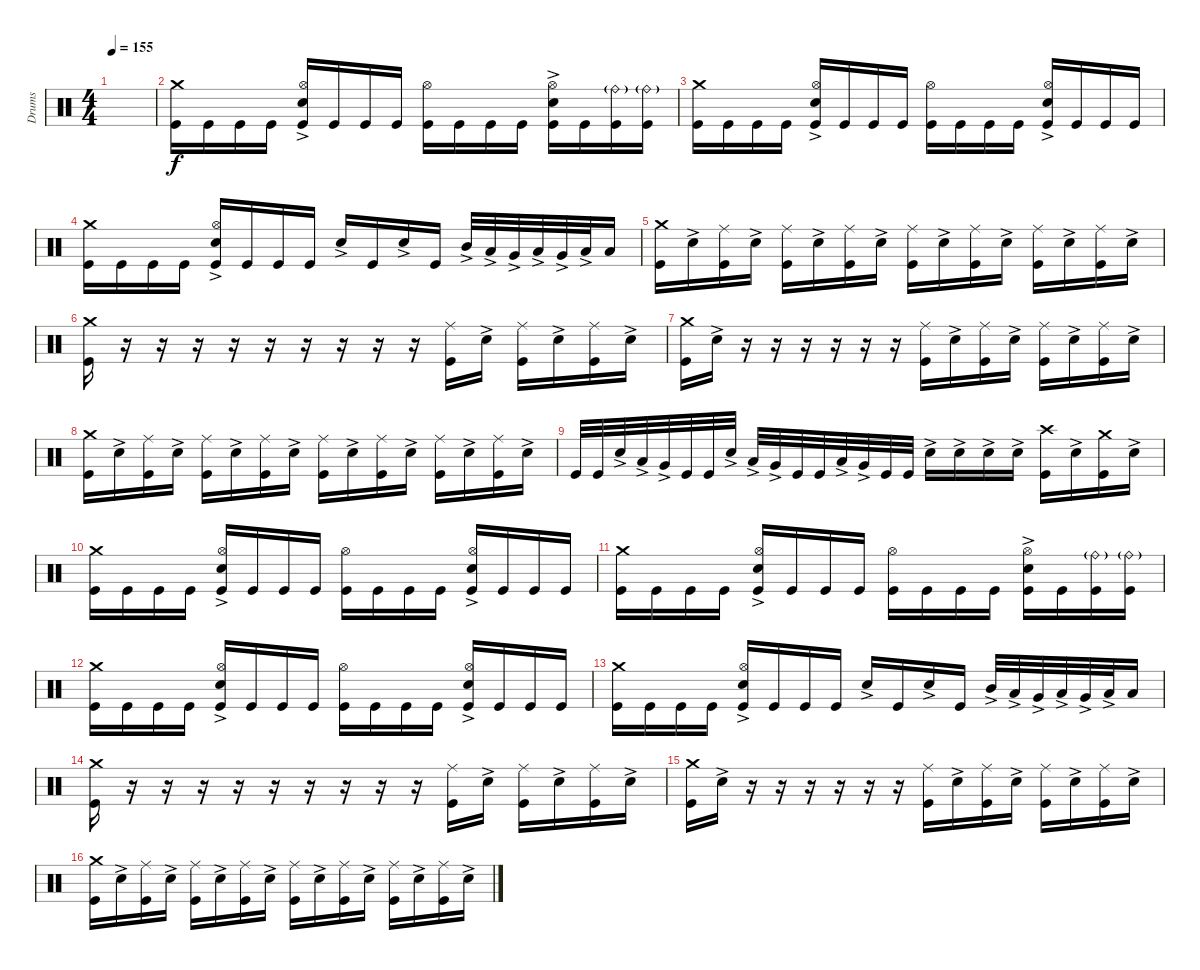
\track ("Drums" "Drums") {instrument percussion}
\staff {score}
\articulation defaults
\ts (4 4)
\tempo 155
\clef neutral
\ks c
|
("Kick (hit)" "Crash medium (hit)").16 "Kick (hit)".16 "Kick (hit)".16 "Kick (hit)".16 ("Kick (hit)" "Hi-Hat (open)" "Snare (hit) 2"{ac}).16 "Kick (hit)".16 "Kick (hit)".16 "Kick (hit)".16 ("Kick (hit)" "Hi-Hat (open)").16 "Kick (hit)".16 "Kick (hit)".16 "Kick (hit)".16 ("Kick (hit)" "Hi-Hat (open)" "Snare (hit) 2"{ac}).16 "Kick (hit)".16 ("Kick (hit)" "Ride (bell)"{g}).16 ("Kick (hit)" "Ride (bell)"{g}).16 |
("Kick (hit)" "Crash medium (hit)").16 "Kick (hit)".16 "Kick (hit)".16 "Kick (hit)".16 ("Kick (hit)" "Hi-Hat (open)" "Snare (hit) 2"{ac}).16 "Kick (hit)".16 "Kick (hit)".16 "Kick (hit)".16 ("Kick (hit)" "Hi-Hat (open)").16 "Kick (hit)".16 "Kick (hit)".16 "Kick (hit)".16 ("Kick (hit)" "Hi-Hat (open)" "Snare (hit) 2"{ac}).16 "Kick (hit)".16 "Kick (hit)".16 "Kick (hit)".16 |
("Kick (hit)" "Crash medium (hit)").16 "Kick (hit)".16 "Kick (hit)".16 "Kick (hit)".16 ("Kick (hit)" "Hi-Hat (open)" "Snare (hit) 2"{ac}).16 "Kick (hit)".16 "Kick (hit)".16 "Kick (hit)".16 "Snare (hit) 2"{ac}.16 "Kick (hit)".16 "Snare (hit) 2"{ac}.16 "Kick (hit)".16 "Mid Tom (hit)"{ac}.32 "Low Tom (hit)"{ac}.32 "Very Low Tom (hit)"{ac}.32 "Low Tom (hit)"{ac}.32 "Very Low Tom (hit)"{ac}.32 "Low Floor Tom (hit)"{ac}.32 "Low Floor Tom (hit)".16 |
("Kick (hit)" "Crash medium (hit)").16 "Snare (hit) 2"{ac}.16 ("Kick (hit)" "Ride (middle)").16 "Snare (hit) 2"{ac}.16 ("Kick (hit)" "Ride (middle)").16 "Snare (hit) 2"{ac}.16 ("Kick (hit)" "Ride (middle)").16 "Snare (hit) 2"{ac}.16 ("Kick (hit)" "Ride (middle)").16 "Snare (hit) 2"{ac}.16 ("Kick (hit)" "Ride (middle)").16 "Snare (hit) 2"{ac}.16 ("Kick (hit)" "Ride (middle)").16 "Snare (hit) 2"{ac}.16 ("Kick (hit)" "Ride (middle)").16 "Snare (hit) 2"{ac}.16 |
("Kick (hit)" "Crash medium (hit)").16 r.16 r.16 r.16 r.16 r.16 r.16 r.16 r.16 r.16 ("Kick (hit)" "Ride (middle)").16 "Snare (hit) 2"{ac}.16 ("Kick (hit)" "Ride (middle)").16 "Snare (hit) 2"{ac}.16 ("Kick (hit)" "Ride (middle)").16 "Snare (hit) 2"{ac}.16 |
("Kick (hit)" "Crash medium (hit)").16 "Snare (hit) 2"{ac}.16 r.16 r.16 r.16 r.16 r.16 r.16 ("Kick (hit)" "Ride (middle)").16 "Snare (hit) 2"{ac}.16 ("Kick (hit)" "Ride (middle)").16 "Snare (hit) 2"{ac}.16 ("Kick (hit)" "Ride (middle)").16 "Snare (hit) 2"{ac}.16 ("Kick (hit)" "Ride (middle)").16 "Snare (hit) 2"{ac}.16 |
("Kick (hit)" "Crash medium (hit)").16 "Snare (hit) 2"{ac}.16 ("Kick (hit)" "Ride (middle)").16 "Snare (hit) 2"{ac}.16 ("Kick (hit)" "Ride (middle)").16 "Snare (hit) 2"{ac}.16 ("Kick (hit)" "Ride (middle)").16 "Snare (hit) 2"{ac}.16 ("Kick (hit)" "Ride (middle)").16 "Snare (hit) 2"{ac}.16 ("Kick (hit)" "Ride (middle)").16 "Snare (hit) 2"{ac}.16 ("Kick (hit)" "Ride (middle)").16 "Snare (hit) 2"{ac}.16 ("Kick (hit)" "Ride (middle)").16 "Snare (hit) 2"{ac}.16 |
"Kick (hit)".32 "Kick (hit)".32 "Snare (hit) 2"{ac}.32 "Low Tom (hit)"{ac}.32 "Very Low Tom (hit)"{ac}.32 "Kick (hit)".32 "Kick (hit)".32 "Snare (hit) 2"{ac}.32 "Low Tom (hit)"{ac}.32 "Very Low Tom (hit)"{ac}.32 "Kick (hit)".32 "Kick (hit)".32 "Low Tom (hit)"{ac}.32 "Very Low Tom (hit)"{ac}.32 "Kick (hit)".32 "Kick (hit)".32 "Snare (hit) 2"{ac}.16 "Snare (hit) 2"{ac}.16 "Snare (hit) 2"{ac}.16 "Snare (hit) 2"{ac}.16 ("Kick (hit)" "Crash high (hit)").16 "Snare (hit) 2"{ac}.16 ("Kick (hit)" "Crash medium (hit)").16 "Snare (hit) 2"{ac}.16 |
("Kick (hit)" "Crash medium (hit)").16 "Kick (hit)".16 "Kick (hit)".16 "Kick (hit)".16 ("Kick (hit)" "Hi-Hat (open)" "Snare (hit) 2"{ac}).16 "Kick (hit)".16 "Kick (hit)".16 "Kick (hit)".16 ("Kick (hit)" "Hi-Hat (open)").16 "Kick (hit)".16 "Kick (hit)".16 "Kick (hit)".16 ("Kick (hit)" "Hi-Hat (open)" "Snare (hit) 2"{ac}).16 "Kick (hit)".16 "Kick (hit)".16 "Kick (hit)".16 |
("Kick (hit)" "Crash medium (hit)").16 "Kick (hit)".16 "Kick (hit)".16 "Kick (hit)".16 ("Kick (hit)" "Hi-Hat (open)" "Snare (hit) 2"{ac}).16 "Kick (hit)".16 "Kick (hit)".16 "Kick (hit)".16 ("Kick (hit)" "Hi-Hat (open)").16 "Kick (hit)".16 "Kick (hit)".16 "Kick (hit)".16 ("Kick (hit)" "Hi-Hat (open)" "Snare (hit) 2"{ac}).16 "Kick (hit)".16 ("Kick (hit)" "Ride (bell)"{g}).16 ("Kick (hit)" "Ride (bell)"{g}).16 |
("Kick (hit)" "Crash medium (hit)").16 "Kick (hit)".16 "Kick (hit)".16 "Kick (hit)".16 ("Kick (hit)" "Hi-Hat (open)" "Snare (hit) 2"{ac}).16 "Kick (hit)".16 "Kick (hit)".16 "Kick (hit)".16 ("Kick (hit)" "Hi-Hat (open)").16 "Kick (hit)".16 "Kick (hit)".16 "Kick (hit)".16 ("Kick (hit)" "Hi-Hat (open)" "Snare (hit) 2"{ac}).16 "Kick (hit)".16 "Kick (hit)".16 "Kick (hit)".16 |
("Kick (hit)" "Crash medium (hit)").16 "Kick (hit)".16 "Kick (hit)".16 "Kick (hit)".16 ("Kick (hit)" "Hi-Hat (open)" "Snare (hit) 2"{ac}).16 "Kick (hit)".16 "Kick (hit)".16 "Kick (hit)".16 "Snare (hit) 2"{ac}.16 "Kick (hit)".16 "Snare (hit) 2"{ac}.16 "Kick (hit)".16 "Mid Tom (hit)"{ac}.32 "Low Tom (hit)"{ac}.32 "Very Low Tom (hit)"{ac}.32 "Low Tom (hit)"{ac}.32 "Very Low Tom (hit)"{ac}.32 "Low Floor Tom (hit)"{ac}.32 "Low Floor Tom (hit)".16 |
("Kick (hit)" "Crash medium (hit)").16 r.16 r.16 r.16 r.16 r.16 r.16 r.16 r.16 r.16 ("Kick (hit)" "Ride (middle)").16 "Snare (hit) 2"{ac}.16 ("Kick (hit)" "Ride (middle)").16 "Snare (hit) 2"{ac}.16 ("Kick (hit)" "Ride (middle)").16 "Snare (hit) 2"{ac}.16 |
("Kick (hit)" "Crash medium (hit)").16 "Snare (hit) 2"{ac}.16 r.16 r.16 r.16 r.16 r.16 r.16 ("Kick (hit)" "Ride (middle)").16 "Snare (hit) 2"{ac}.16 ("Kick (hit)" "Ride (middle)").16 "Snare (hit) 2"{ac}.16 ("Kick (hit)" "Ride (middle)").16 "Snare (hit) 2"{ac}.16 ("Kick (hit)" "Ride (middle)").16 "Snare (hit) 2"{ac}.16 |
("Kick (hit)" "Crash medium (hit)").16 "Snare (hit) 2"{ac}.16 ("Kick (hit)" "Ride (middle)").16 "Snare (hit) 2"{ac}.16 ("Kick (hit)" "Ride (middle)").16 "Snare (hit) 2"{ac}.16 ("Kick (hit)" "Ride (middle)").16 "Snare (hit) 2"{ac}.16 ("Kick (hit)" "Ride (middle)").16 "Snare (hit) 2"{ac}.16 ("Kick (hit)" "Ride (middle)").16 "Snare (hit) 2"{ac}.16 ("Kick (hit)" "Ride (middle)").16 "Snare (hit) 2"{ac}.16 ("Kick (hit)" "Ride (middle)").16 "Snare (hit) 2"{ac}.16
